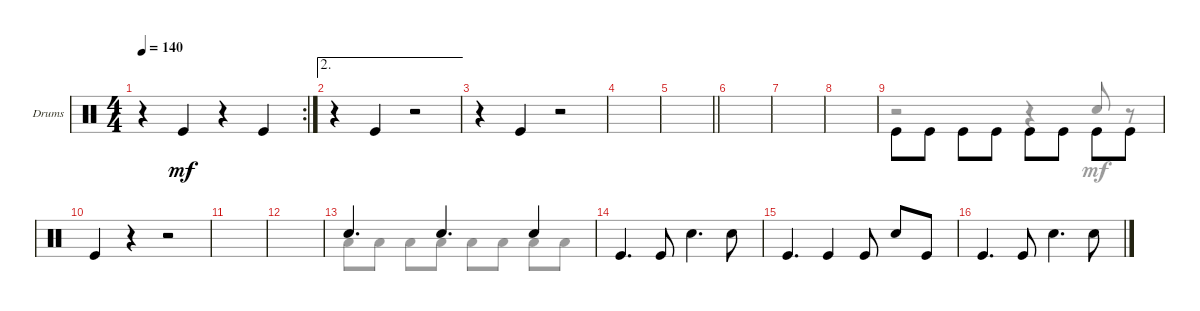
\defaultSystemsLayout 4
\bracketExtendMode groupsimilarinstruments
\firstSystemTrackNameOrientation horizontal
\otherSystemsTrackNameOrientation horizontal
\track ("Drumkit" "Drums") {instrument percussion}
\staff {score}
\articulation defaults
\voice
\rc 2
\ts (4 4)
\tempo 140
\clef neutral
\scale
0.525
\ks c
r.4{dy mf} "Kick (hit)".4 r.4 "Kick (hit)".4 |
\ae 2
\scale
0.475 r.4 "Kick (hit)".4 r.2 |
\scale
0.5 r.4 "Kick (hit)".4 r.2 |
\scale
0.5 |
\scale
0.452381
\barLineRight lightlight
|
\scale
0.547619 |
\scale
0.5 |
\scale
0.5 |
\scale
0.5 "Kick (hit)".8{beam invert} "Kick (hit)".8 "Kick (hit)".8{beam invert} "Kick (hit)".8 "Kick (hit)".8{beam invert} "Kick (hit)".8 "Kick (hit)".8{beam invert} "Kick (hit)".8 |
\scale
0.5 "Kick (hit)".4 r.4 r.2 |
\scale
0.5 |
\scale
0.5 |
\scale
0.5 "Snare (hit) 2".4{d} "Snare (hit) 2".4{d} "Snare (hit) 2".4 |
"Kick (hit)".4{d} "Kick (hit)".8 "Snare (hit) 2".4{d} "Snare (hit) 2".8 |
"Kick (hit)".4{d} "Kick (hit)".4 "Kick (hit)".8 "Snare (hit) 2".8 "Kick (hit)".8 |
"Kick (hit)".4{d} "Kick (hit)".8 "Snare (hit) 2".4{d} "Snare (hit) 2".8
\voice
\clef neutral
\ottava regular
\simile none
\scale
0.525
\ks c
|
\scale
0.475 |
\scale
0.5 |
\scale
0.5 |
\scale
0.452381
\barLineRight lightlight
|
\scale
0.547619 |
\scale
0.5 |
\scale
0.5 |
\scale
0.5 r.2{beam invert} r.4{beam invert} "Snare (hit) 2".8{beam invert} r.8{beam invert} |
\scale
0.5 |
\scale
0.5 |
\scale
0.5 |
\scale
0.5 "Low Tom (hit)".8 "Low Tom (hit)".8 "Low Tom (hit)".8 "Low Tom (hit)".8 "Low Tom (hit)".8 "Low Tom (hit)".8 "Low Tom (hit)".8 "Low Tom (hit)".8 |
|
|
